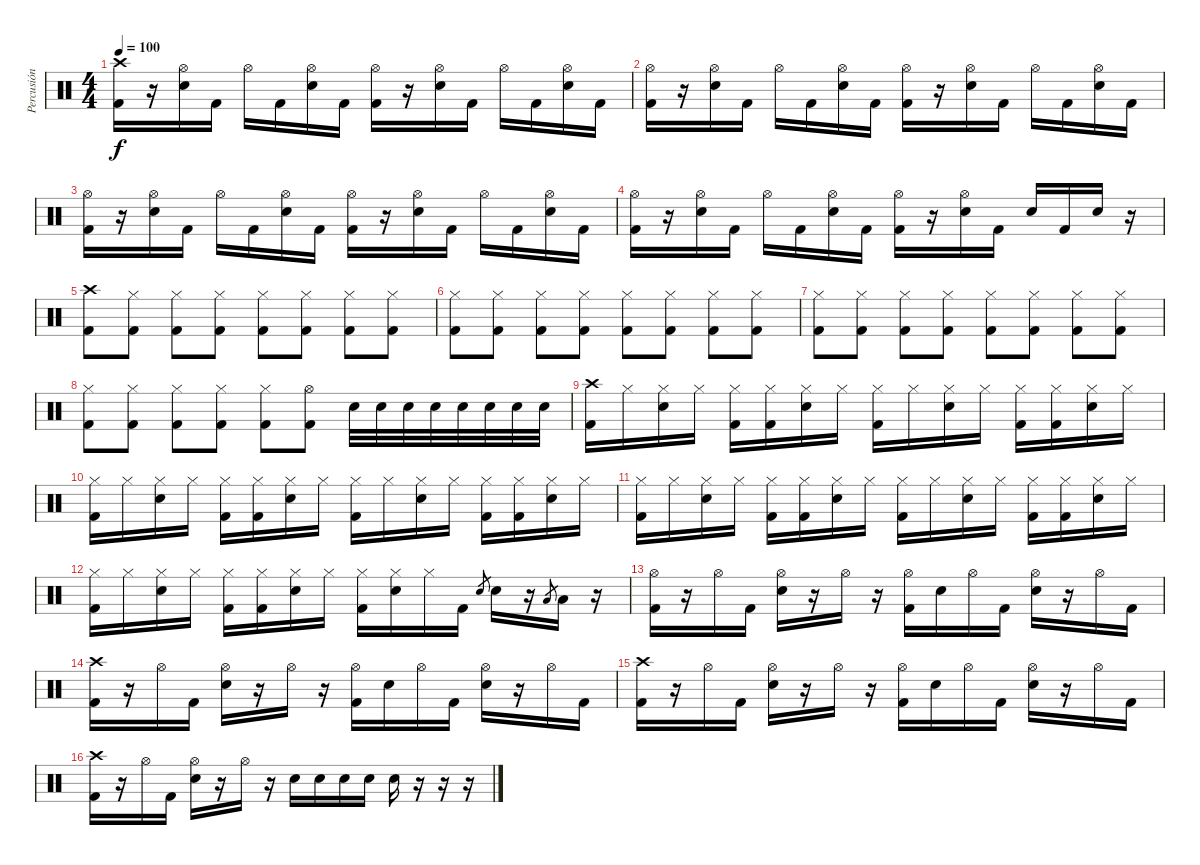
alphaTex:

\track ("Percusión" "Percusión") {instrument percussion}
\staff {score}
\articulation defaults
\ts (4 4)
\tempo 100
\clef neutral
\ks c
("Crash high (hit)" "Kick (hit) 2").16{dy f} r.16 ("Hi-Hat (open)" "Electric Snare (hit)").16 "Kick (hit) 2".16 "Hi-Hat (open)".16 "Kick (hit) 2".16 ("Hi-Hat (open)" "Electric Snare (hit)").16 "Kick (hit) 2".16 ("Hi-Hat (open)" "Kick (hit) 2").16 r.16 ("Hi-Hat (open)" "Electric Snare (hit)").16 "Kick (hit) 2".16 "Hi-Hat (open)".16 "Kick (hit) 2".16 ("Hi-Hat (open)" "Electric Snare (hit)").16 "Kick (hit) 2".16 |
("Hi-Hat (open)" "Kick (hit) 2").16 r.16 ("Hi-Hat (open)" "Electric Snare (hit)").16 "Kick (hit) 2".16 "Hi-Hat (open)".16 "Kick (hit) 2".16 ("Hi-Hat (open)" "Electric Snare (hit)").16 "Kick (hit) 2".16 ("Hi-Hat (open)" "Kick (hit) 2").16 r.16 ("Hi-Hat (open)" "Electric Snare (hit)").16 "Kick (hit) 2".16 "Hi-Hat (open)".16 "Kick (hit) 2".16 ("Hi-Hat (open)" "Electric Snare (hit)").16 "Kick (hit) 2".16 |
("Hi-Hat (open)" "Kick (hit) 2").16 r.16 ("Hi-Hat (open)" "Electric Snare (hit)").16 "Kick (hit) 2".16 "Hi-Hat (open)".16 "Kick (hit) 2".16 ("Hi-Hat (open)" "Electric Snare (hit)").16 "Kick (hit) 2".16 ("Hi-Hat (open)" "Kick (hit) 2").16 r.16 ("Hi-Hat (open)" "Electric Snare (hit)").16 "Kick (hit) 2".16 "Hi-Hat (open)".16 "Kick (hit) 2".16 ("Hi-Hat (open)" "Electric Snare (hit)").16 "Kick (hit) 2".16 |
("Hi-Hat (open)" "Kick (hit) 2").16 r.16 ("Hi-Hat (open)" "Electric Snare (hit)").16 "Kick (hit) 2".16 "Hi-Hat (open)".16 "Kick (hit) 2".16 ("Hi-Hat (open)" "Electric Snare (hit)").16 "Kick (hit) 2".16 ("Hi-Hat (open)" "Kick (hit) 2").16 r.16 ("Hi-Hat (open)" "Electric Snare (hit)").16 "Kick (hit) 2".16 "Electric Snare (hit)".16 "Kick (hit) 2".16 "Electric Snare (hit)".16 r.16 |
("Crash high (hit)" "Kick (hit) 2").8 ("Hi-Hat (closed)" "Kick (hit) 2").8 ("Hi-Hat (closed)" "Kick (hit) 2").8 ("Hi-Hat (closed)" "Kick (hit) 2").8 ("Hi-Hat (closed)" "Kick (hit) 2").8 ("Hi-Hat (closed)" "Kick (hit) 2").8 ("Hi-Hat (closed)" "Kick (hit) 2").8 ("Hi-Hat (closed)" "Kick (hit) 2").8 |
("Hi-Hat (closed)" "Kick (hit) 2").8 ("Hi-Hat (closed)" "Kick (hit) 2").8 ("Hi-Hat (closed)" "Kick (hit) 2").8 ("Hi-Hat (closed)" "Kick (hit) 2").8 ("Hi-Hat (closed)" "Kick (hit) 2").8 ("Hi-Hat (closed)" "Kick (hit) 2").8 ("Hi-Hat (closed)" "Kick (hit) 2").8 ("Hi-Hat (closed)" "Kick (hit) 2").8 |
("Hi-Hat (closed)" "Kick (hit) 2").8 ("Hi-Hat (closed)" "Kick (hit) 2").8 ("Hi-Hat (closed)" "Kick (hit) 2").8 ("Hi-Hat (closed)" "Kick (hit) 2").8 ("Hi-Hat (closed)" "Kick (hit) 2").8 ("Hi-Hat (closed)" "Kick (hit) 2").8 ("Hi-Hat (closed)" "Kick (hit) 2").8 ("Hi-Hat (closed)" "Kick (hit) 2").8 |
("Hi-Hat (closed)" "Kick (hit) 2").8 ("Hi-Hat (closed)" "Kick (hit) 2").8 ("Hi-Hat (closed)" "Kick (hit) 2").8 ("Hi-Hat (closed)" "Kick (hit) 2").8 ("Hi-Hat (closed)" "Kick (hit) 2").8 ("Hi-Hat (open)" "Kick (hit) 2").8 "Electric Snare (hit)".32 "Electric Snare (hit)".32 "Electric Snare (hit)".32 "Electric Snare (hit)".32 "Electric Snare (hit)".32 "Electric Snare (hit)".32 "Electric Snare (hit)".32 "Electric Snare (hit)".32 |
("Crash high (hit)" "Kick (hit) 2").16 "Hi-Hat (closed)".16 ("Hi-Hat (closed)" "Electric Snare (hit)").16 "Hi-Hat (closed)".16 ("Hi-Hat (closed)" "Kick (hit) 2").16 ("Hi-Hat (closed)" "Kick (hit) 2").16 ("Hi-Hat (closed)" "Electric Snare (hit)").16 "Hi-Hat (closed)".16 ("Hi-Hat (closed)" "Kick (hit) 2").16 "Hi-Hat (closed)".16 ("Hi-Hat (closed)" "Electric Snare (hit)").16 "Hi-Hat (closed)".16 ("Hi-Hat (closed)" "Kick (hit) 2").16 ("Hi-Hat (closed)" "Kick (hit) 2").16 ("Hi-Hat (closed)" "Electric Snare (hit)").16 "Hi-Hat (closed)".16 |
("Hi-Hat (closed)" "Kick (hit) 2").16 "Hi-Hat (closed)".16 ("Hi-Hat (closed)" "Electric Snare (hit)").16 "Hi-Hat (closed)".16 ("Hi-Hat (closed)" "Kick (hit) 2").16 ("Hi-Hat (closed)" "Kick (hit) 2").16 ("Hi-Hat (closed)" "Electric Snare (hit)").16 "Hi-Hat (closed)".16 ("Hi-Hat (closed)" "Kick (hit) 2").16 "Hi-Hat (closed)".16 ("Hi-Hat (closed)" "Electric Snare (hit)").16 "Hi-Hat (closed)".16 ("Hi-Hat (closed)" "Kick (hit) 2").16 ("Hi-Hat (closed)" "Kick (hit) 2").16 ("Hi-Hat (closed)" "Electric Snare (hit)").16 "Hi-Hat (closed)".16 |
("Hi-Hat (closed)" "Kick (hit) 2").16 "Hi-Hat (closed)".16 ("Hi-Hat (closed)" "Electric Snare (hit)").16 "Hi-Hat (closed)".16 ("Hi-Hat (closed)" "Kick (hit) 2").16 ("Hi-Hat (closed)" "Kick (hit) 2").16 ("Hi-Hat (closed)" "Electric Snare (hit)").16 "Hi-Hat (closed)".16 ("Hi-Hat (closed)" "Kick (hit) 2").16 "Hi-Hat (closed)".16 ("Hi-Hat (closed)" "Electric Snare (hit)").16 "Hi-Hat (closed)".16 ("Hi-Hat (closed)" "Kick (hit) 2").16 ("Hi-Hat (closed)" "Kick (hit) 2").16 ("Hi-Hat (closed)" "Electric Snare (hit)").16 "Hi-Hat (closed)".16 |
("Hi-Hat (closed)" "Kick (hit) 2").16 "Hi-Hat (closed)".16 ("Hi-Hat (closed)" "Electric Snare (hit)").16 "Hi-Hat (closed)".16 ("Hi-Hat (closed)" "Kick (hit) 2").16 ("Hi-Hat (closed)" "Kick (hit) 2").16 ("Hi-Hat (closed)" "Electric Snare (hit)").16 "Hi-Hat (closed)".16 ("Hi-Hat (closed)" "Kick (hit) 2").16 ("Hi-Hat (closed)" "Electric Snare (hit)").16 "Hi-Hat (closed)".16 "Kick (hit) 2".16 "Electric Snare (hit)".8{gr} "Electric Snare (hit)".16 r.16 "Low Tom (hit)".8{gr} "Low Tom (hit)".16 r.16 |
("Hi-Hat (open)" "Kick (hit) 2").16 r.16 "Hi-Hat (open)".16 "Kick (hit) 2".16 ("Hi-Hat (open)" "Electric Snare (hit)").16 r.16 "Hi-Hat (open)".16 r.16 ("Hi-Hat (open)" "Kick (hit) 2").16 "Electric Snare (hit)".16 "Hi-Hat (open)".16 "Kick (hit) 2".16 ("Hi-Hat (open)" "Electric Snare (hit)").16 r.16 "Hi-Hat (open)".16 "Kick (hit) 2".16 |
("Crash high (hit)" "Kick (hit) 2").16 r.16 "Hi-Hat (open)".16 "Kick (hit) 2".16 ("Hi-Hat (open)" "Electric Snare (hit)").16 r.16 "Hi-Hat (open)".16 r.16 ("Hi-Hat (open)" "Kick (hit) 2").16 "Electric Snare (hit)".16 "Hi-Hat (open)".16 "Kick (hit) 2".16 ("Hi-Hat (open)" "Electric Snare (hit)").16 r.16 "Hi-Hat (open)".16 "Kick (hit) 2".16 |
("Crash high (hit)" "Kick (hit) 2").16 r.16 "Hi-Hat (open)".16 "Kick (hit) 2".16 ("Hi-Hat (open)" "Electric Snare (hit)").16 r.16 "Hi-Hat (open)".16 r.16 ("Hi-Hat (open)" "Kick (hit) 2").16 "Electric Snare (hit)".16 "Hi-Hat (open)".16 "Kick (hit) 2".16 ("Hi-Hat (open)" "Electric Snare (hit)").16 r.16 "Hi-Hat (open)".16 "Kick (hit) 2".16 |
("Crash high (hit)" "Kick (hit) 2").16 r.16 "Hi-Hat (open)".16 "Kick (hit) 2".16 ("Hi-Hat (open)" "Electric Snare (hit)").16 r.16 "Hi-Hat (open)".16 r.16 "Electric Snare (hit)".16 "Electric Snare (hit)".16 "Electric Snare (hit)".16 "Electric Snare (hit)".16 "Electric Snare (hit)".16 r.16 r.16 r.16
